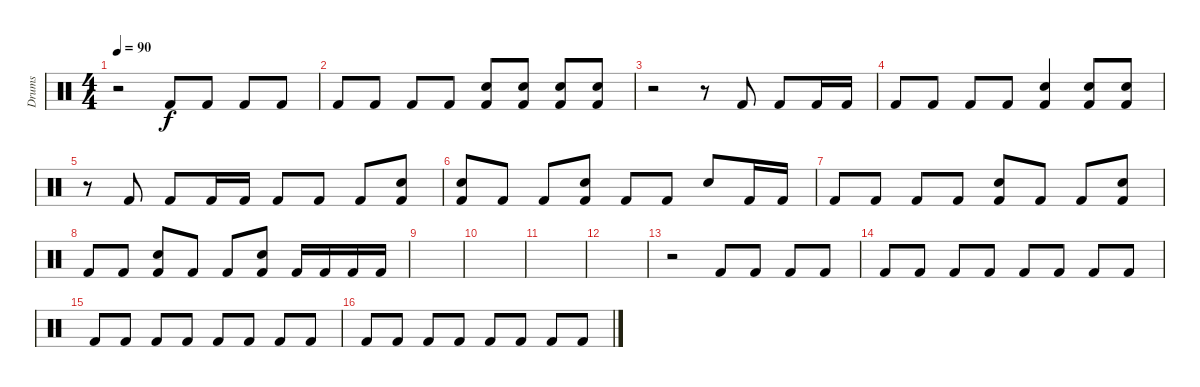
\track ("Drums" "Drums") {instrument percussion}
\staff {score}
\articulation defaults
\ts (4 4)
\tempo 90
\clef neutral
\ks c
r.2{dy f} "Kick (hit) 2".8 "Kick (hit) 2".8 "Kick (hit) 2".8 "Kick (hit) 2".8 |
"Kick (hit) 2".8 "Kick (hit) 2".8 "Kick (hit) 2".8 "Kick (hit) 2".8 ("Kick (hit) 2" "Snare (hit) 2").8 ("Kick (hit) 2" "Snare (hit) 2").8 ("Kick (hit) 2" "Snare (hit) 2").8 ("Kick (hit) 2" "Snare (hit) 2").8 |
r.2 r.8 "Kick (hit) 2".8 "Kick (hit) 2".8 "Kick (hit) 2".16 "Kick (hit) 2".16 |
"Kick (hit) 2".8 "Kick (hit) 2".8 "Kick (hit) 2".8 "Kick (hit) 2".8 ("Kick (hit) 2" "Snare (hit) 2").4 ("Kick (hit) 2" "Snare (hit) 2").8 ("Kick (hit) 2" "Snare (hit) 2").8 |
r.8 "Kick (hit) 2".8 "Kick (hit) 2".8 "Kick (hit) 2".16 "Kick (hit) 2".16 "Kick (hit) 2".8 "Kick (hit) 2".8 "Kick (hit) 2".8 ("Kick (hit) 2" "Snare (hit) 2").8 |
("Kick (hit) 2" "Snare (hit) 2").8 "Kick (hit) 2".8 "Kick (hit) 2".8 ("Kick (hit) 2" "Snare (hit) 2").8 "Kick (hit) 2".8 "Kick (hit) 2".8 "Snare (hit) 2".8 "Kick (hit) 2".16 "Kick (hit) 2".16 |
"Kick (hit) 2".8 "Kick (hit) 2".8 "Kick (hit) 2".8 "Kick (hit) 2".8 ("Kick (hit) 2" "Snare (hit) 2").8 "Kick (hit) 2".8 "Kick (hit) 2".8 ("Kick (hit) 2" "Snare (hit) 2").8 |
"Kick (hit) 2".8 "Kick (hit) 2".8 ("Kick (hit) 2" "Snare (hit) 2").8 "Kick (hit) 2".8 "Kick (hit) 2".8 ("Kick (hit) 2" "Snare (hit) 2").8 "Kick (hit) 2".16 "Kick (hit) 2".16 "Kick (hit) 2".16 "Kick (hit) 2".16 |
|
|
|
|
r.2 "Kick (hit) 2".8 "Kick (hit) 2".8 "Kick (hit) 2".8 "Kick (hit) 2".8 |
"Kick (hit) 2".8 "Kick (hit) 2".8 "Kick (hit) 2".8 "Kick (hit) 2".8 "Kick (hit) 2".8 "Kick (hit) 2".8 "Kick (hit) 2".8 "Kick (hit) 2".8 |
"Kick (hit) 2".8 "Kick (hit) 2".8 "Kick (hit) 2".8 "Kick (hit) 2".8 "Kick (hit) 2".8 "Kick (hit) 2".8 "Kick (hit) 2".8 "Kick (hit) 2".8 |
"Kick (hit) 2".8 "Kick (hit) 2".8 "Kick (hit) 2".8 "Kick (hit) 2".8 "Kick (hit) 2".8 "Kick (hit) 2".8 "Kick (hit) 2".8 "Kick (hit) 2".8
